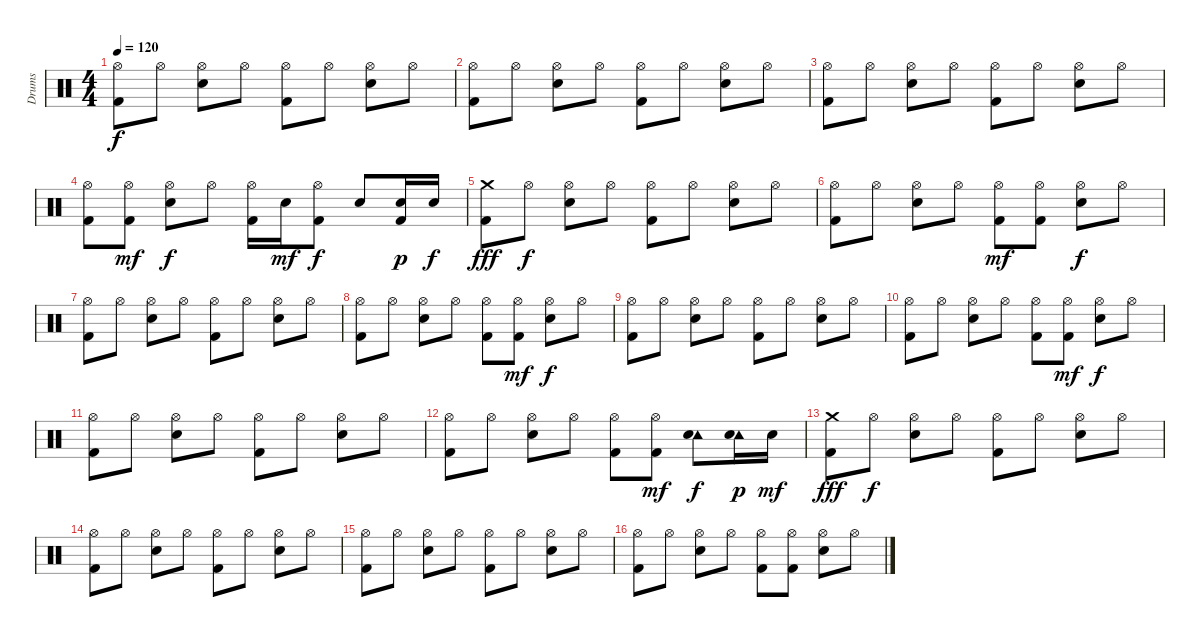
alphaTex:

\track ("Drums" "Drums") {instrument percussion}
\staff {score}
\articulation defaults
\ts (4 4)
\tempo 120
\clef neutral
\ks c
("Hi-Hat (open)" "Kick (hit) 2").8{dy f} "Hi-Hat (open)".8 ("Hi-Hat (open)" "Electric Snare (hit)").8 "Hi-Hat (open)".8 ("Hi-Hat (open)" "Kick (hit) 2").8 "Hi-Hat (open)".8 ("Hi-Hat (open)" "Electric Snare (hit)").8 "Hi-Hat (open)".8 |
("Hi-Hat (open)" "Kick (hit) 2").8 "Hi-Hat (open)".8 ("Hi-Hat (open)" "Electric Snare (hit)").8 "Hi-Hat (open)".8 ("Hi-Hat (open)" "Kick (hit) 2").8 "Hi-Hat (open)".8 ("Hi-Hat (open)" "Electric Snare (hit)").8 "Hi-Hat (open)".8 |
("Hi-Hat (open)" "Kick (hit) 2").8 "Hi-Hat (open)".8 ("Hi-Hat (open)" "Electric Snare (hit)").8 "Hi-Hat (open)".8 ("Hi-Hat (open)" "Kick (hit) 2").8 "Hi-Hat (open)".8 ("Hi-Hat (open)" "Electric Snare (hit)").8 "Hi-Hat (open)".8 |
("Hi-Hat (open)" "Kick (hit) 2").8 ("Hi-Hat (open)" "Kick (hit) 2").8{dy mf} ("Hi-Hat (open)" "Electric Snare (hit)").8{dy f} "Hi-Hat (open)".8 ("Hi-Hat (open)" "Kick (hit) 2").16 "Electric Snare (hit)".16{dy mf} ("Hi-Hat (open)" "Kick (hit) 2").8{dy f} "Electric Snare (hit)".8 ("Electric Snare (hit)" "Kick (hit) 2").16{dy p} "Electric Snare (hit)".16{dy f} |
("Crash medium (hit)" "Kick (hit) 2").8{dy fff} "Hi-Hat (open)".8{dy f} ("Hi-Hat (open)" "Electric Snare (hit)").8 "Hi-Hat (open)".8 ("Hi-Hat (open)" "Kick (hit) 2").8 "Hi-Hat (open)".8 ("Hi-Hat (open)" "Electric Snare (hit)").8 "Hi-Hat (open)".8 |
("Hi-Hat (open)" "Kick (hit) 2").8 "Hi-Hat (open)".8 ("Hi-Hat (open)" "Electric Snare (hit)").8 "Hi-Hat (open)".8 ("Hi-Hat (open)" "Kick (hit) 2").8{dy mf} ("Hi-Hat (open)" "Kick (hit) 2").8 ("Hi-Hat (open)" "Electric Snare (hit)").8{dy f} "Hi-Hat (open)".8 |
("Hi-Hat (open)" "Kick (hit) 2").8 "Hi-Hat (open)".8 ("Hi-Hat (open)" "Electric Snare (hit)").8 "Hi-Hat (open)".8 ("Hi-Hat (open)" "Kick (hit) 2").8 "Hi-Hat (open)".8 ("Hi-Hat (open)" "Electric Snare (hit)").8 "Hi-Hat (open)".8 |
("Hi-Hat (open)" "Kick (hit) 2").8 "Hi-Hat (open)".8 ("Hi-Hat (open)" "Electric Snare (hit)").8 "Hi-Hat (open)".8 ("Hi-Hat (open)" "Kick (hit) 2").8 ("Hi-Hat (open)" "Kick (hit) 2").8{dy mf} ("Hi-Hat (open)" "Electric Snare (hit)").8{dy f} "Hi-Hat (open)".8 |
("Hi-Hat (open)" "Kick (hit) 2").8 "Hi-Hat (open)".8 ("Hi-Hat (open)" "Electric Snare (hit)").8 "Hi-Hat (open)".8 ("Hi-Hat (open)" "Kick (hit) 2").8 "Hi-Hat (open)".8 ("Hi-Hat (open)" "Electric Snare (hit)").8 "Hi-Hat (open)".8 |
("Hi-Hat (open)" "Kick (hit) 2").8 "Hi-Hat (open)".8 ("Hi-Hat (open)" "Electric Snare (hit)").8 "Hi-Hat (open)".8 ("Hi-Hat (open)" "Kick (hit) 2").8 ("Hi-Hat (open)" "Kick (hit) 2").8{dy mf} ("Hi-Hat (open)" "Electric Snare (hit)").8{dy f} "Hi-Hat (open)".8 |
("Hi-Hat (open)" "Kick (hit) 2").8 "Hi-Hat (open)".8 ("Hi-Hat (open)" "Electric Snare (hit)").8 "Hi-Hat (open)".8 ("Hi-Hat (open)" "Kick (hit) 2").8 "Hi-Hat (open)".8 ("Hi-Hat (open)" "Electric Snare (hit)").8 "Hi-Hat (open)".8 |
("Hi-Hat (open)" "Kick (hit) 2").8 "Hi-Hat (open)".8 ("Hi-Hat (open)" "Electric Snare (hit)").8 "Hi-Hat (open)".8 ("Hi-Hat (open)" "Kick (hit) 2").8 ("Hi-Hat (open)" "Kick (hit) 2").8{dy mf} ("Tambourine (hit)" "Electric Snare (hit)").8{dy f} ("Tambourine (hit)" "Electric Snare (hit)").16{dy p} "Electric Snare (hit)".16{dy mf} |
("Crash medium (hit)" "Kick (hit) 2").8{dy fff} "Hi-Hat (open)".8{dy f} ("Hi-Hat (open)" "Electric Snare (hit)").8 "Hi-Hat (open)".8 ("Hi-Hat (open)" "Kick (hit) 2").8 "Hi-Hat (open)".8 ("Hi-Hat (open)" "Electric Snare (hit)").8 "Hi-Hat (open)".8 |
("Hi-Hat (open)" "Kick (hit) 2").8 "Hi-Hat (open)".8 ("Hi-Hat (open)" "Electric Snare (hit)").8 "Hi-Hat (open)".8 ("Hi-Hat (open)" "Kick (hit) 2").8 "Hi-Hat (open)".8 ("Hi-Hat (open)" "Electric Snare (hit)").8 "Hi-Hat (open)".8 |
("Hi-Hat (open)" "Kick (hit) 2").8 "Hi-Hat (open)".8 ("Hi-Hat (open)" "Electric Snare (hit)").8 "Hi-Hat (open)".8 ("Hi-Hat (open)" "Kick (hit) 2").8 "Hi-Hat (open)".8 ("Hi-Hat (open)" "Electric Snare (hit)").8 "Hi-Hat (open)".8 |
("Hi-Hat (open)" "Kick (hit) 2").8 "Hi-Hat (open)".8 ("Hi-Hat (open)" "Electric Snare (hit)").8 "Hi-Hat (open)".8 ("Hi-Hat (open)" "Kick (hit) 2").8 ("Hi-Hat (open)" "Kick (hit) 2").8 ("Hi-Hat (open)" "Electric Snare (hit)").8 "Hi-Hat (open)".8
